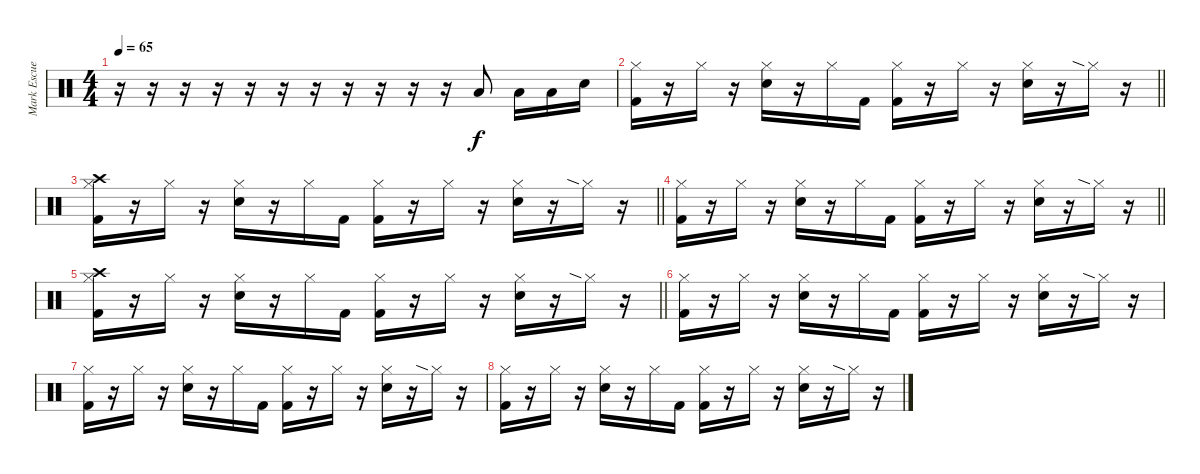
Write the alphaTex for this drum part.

\track ("Mark Escueta" "Mark Escue") {instrument percussion}
\staff {score}
\articulation defaults
\ts (4 4)
\tempo 65
\clef neutral
\ks c
r.16{dy f} r.16 r.16 r.16 r.16 r.16 r.16 r.16 r.16 r.16 r.16 "Low Floor Tom (hit)".8 "Low Floor Tom (hit)".16 "Low Floor Tom (hit)".16 "Electric Snare (hit)".16 |
\barLineRight lightlight
("Hi-Hat (closed)" "Kick (hit) 2").16 r.16 "Hi-Hat (closed)".16 r.16 ("Hi-Hat (closed)" "Electric Snare (hit)").16 r.16 "Hi-Hat (closed)".16 "Kick (hit) 2".16 ("Hi-Hat (closed)" "Kick (hit) 2").16 r.16 "Hi-Hat (closed)".16 r.16 ("Hi-Hat (closed)" "Electric Snare (hit)").16 r.16 "Hi-Hat (closed)"{sia}.16 r.16 |
\barLineRight lightlight
("Crash high (hit)" "Hi-Hat (closed)" "Kick (hit) 2").16 r.16 "Hi-Hat (closed)".16 r.16 ("Hi-Hat (closed)" "Electric Snare (hit)").16 r.16 "Hi-Hat (closed)".16 "Kick (hit) 2".16 ("Hi-Hat (closed)" "Kick (hit) 2").16 r.16 "Hi-Hat (closed)".16 r.16 ("Hi-Hat (closed)" "Electric Snare (hit)").16 r.16 "Hi-Hat (closed)"{sia}.16 r.16 |
\barLineRight lightlight
("Hi-Hat (closed)" "Kick (hit) 2").16 r.16 "Hi-Hat (closed)".16 r.16 ("Hi-Hat (closed)" "Electric Snare (hit)").16 r.16 "Hi-Hat (closed)".16 "Kick (hit) 2".16 ("Hi-Hat (closed)" "Kick (hit) 2").16 r.16 "Hi-Hat (closed)".16 r.16 ("Hi-Hat (closed)" "Electric Snare (hit)").16 r.16 "Hi-Hat (closed)"{sia}.16 r.16 |
\barLineRight lightlight
("Crash high (hit)" "Hi-Hat (closed)" "Kick (hit) 2").16 r.16 "Hi-Hat (closed)".16 r.16 ("Hi-Hat (closed)" "Electric Snare (hit)").16 r.16 "Hi-Hat (closed)".16 "Kick (hit) 2".16 ("Hi-Hat (closed)" "Kick (hit) 2").16 r.16 "Hi-Hat (closed)".16 r.16 ("Hi-Hat (closed)" "Electric Snare (hit)").16 r.16 "Hi-Hat (closed)"{sia}.16 r.16 |
("Hi-Hat (closed)" "Kick (hit) 2").16 r.16 "Hi-Hat (closed)".16 r.16 ("Hi-Hat (closed)" "Electric Snare (hit)").16 r.16 "Hi-Hat (closed)".16 "Kick (hit) 2".16 ("Hi-Hat (closed)" "Kick (hit) 2").16 r.16 "Hi-Hat (closed)".16 r.16 ("Hi-Hat (closed)" "Electric Snare (hit)").16 r.16 "Hi-Hat (closed)"{sia}.16 r.16 |
("Hi-Hat (closed)" "Kick (hit) 2").16 r.16 "Hi-Hat (closed)".16 r.16 ("Hi-Hat (closed)" "Electric Snare (hit)").16 r.16 "Hi-Hat (closed)".16 "Kick (hit) 2".16 ("Hi-Hat (closed)" "Kick (hit) 2").16 r.16 "Hi-Hat (closed)".16 r.16 ("Hi-Hat (closed)" "Electric Snare (hit)").16 r.16 "Hi-Hat (closed)"{sia}.16 r.16 |
("Hi-Hat (closed)" "Kick (hit) 2").16 r.16 "Hi-Hat (closed)".16 r.16 ("Hi-Hat (closed)" "Electric Snare (hit)").16 r.16 "Hi-Hat (closed)".16 "Kick (hit) 2".16 ("Hi-Hat (closed)" "Kick (hit) 2").16 r.16 "Hi-Hat (closed)".16 r.16 ("Hi-Hat (closed)" "Electric Snare (hit)").16 r.16 "Hi-Hat (closed)"{sia}.16 r.16
